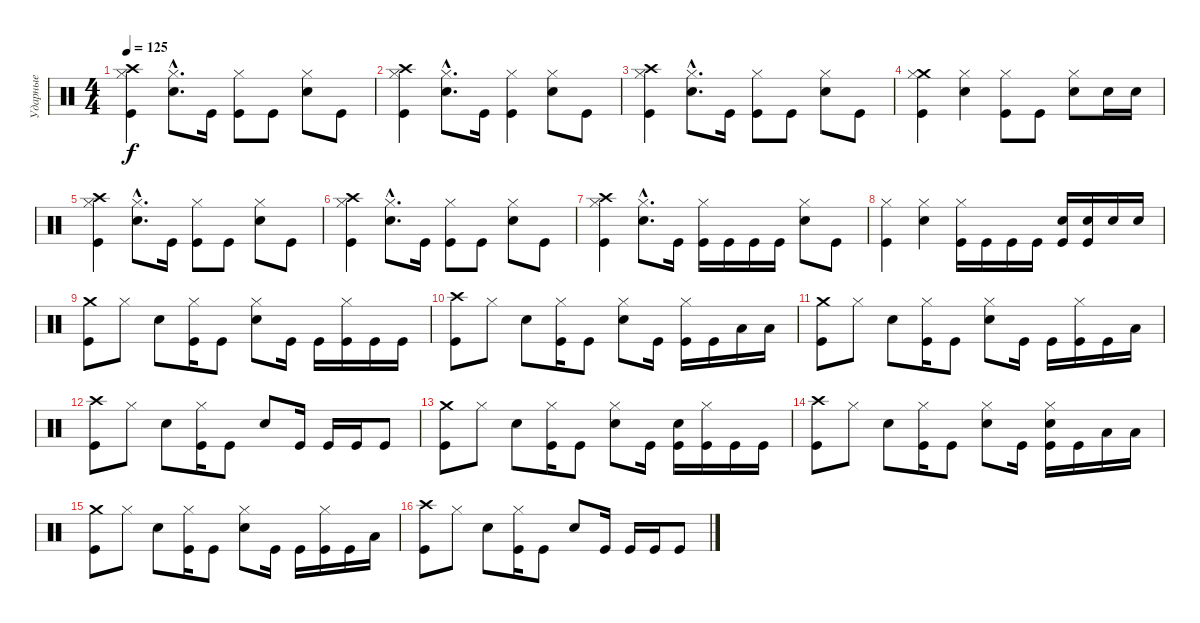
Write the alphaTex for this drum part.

\track ("Ударные" "Ударные") {instrument percussion}
\staff {score}
\articulation defaults
\ts (4 4)
\tempo 125
\clef neutral
\ks c
("Crash high (hit)" "Hi-Hat (closed)" "Kick (hit)").4{dy f} ("Hi-Hat (closed)"{hac} "Electric Snare (hit)"{hac}).8{d} "Kick (hit)".16 ("Hi-Hat (closed)" "Kick (hit)").8 "Kick (hit)".8 ("Hi-Hat (closed)" "Electric Snare (hit)").8 "Kick (hit)".8 |
("Crash high (hit)" "Hi-Hat (closed)" "Kick (hit)").4 ("Hi-Hat (closed)"{hac} "Electric Snare (hit)"{hac}).8{d} "Kick (hit)".16 ("Hi-Hat (closed)" "Kick (hit)").4 ("Hi-Hat (closed)" "Electric Snare (hit)").8 "Kick (hit)".8 |
("Crash high (hit)" "Hi-Hat (closed)" "Kick (hit)").4 ("Hi-Hat (closed)"{hac} "Electric Snare (hit)"{hac}).8{d} "Kick (hit)".16 ("Hi-Hat (closed)" "Kick (hit)").8 "Kick (hit)".8 ("Hi-Hat (closed)" "Electric Snare (hit)").8 "Kick (hit)".8 |
("Crash medium (hit)" "Hi-Hat (closed)" "Kick (hit)").4 ("Hi-Hat (closed)" "Electric Snare (hit)").4 ("Hi-Hat (closed)" "Kick (hit)").8 "Kick (hit)".8 ("Hi-Hat (closed)" "Electric Snare (hit)").8 "Electric Snare (hit)".16 "Electric Snare (hit)".16 |
("Crash high (hit)" "Hi-Hat (closed)" "Kick (hit)").4 ("Hi-Hat (closed)"{hac} "Electric Snare (hit)"{hac}).8{d} "Kick (hit)".16 ("Hi-Hat (closed)" "Kick (hit)").8 "Kick (hit)".8 ("Hi-Hat (closed)" "Electric Snare (hit)").8 "Kick (hit)".8 |
("Crash high (hit)" "Hi-Hat (closed)" "Kick (hit)").4 ("Hi-Hat (closed)"{hac} "Electric Snare (hit)"{hac}).8{d} "Kick (hit)".16 ("Hi-Hat (closed)" "Kick (hit)").8 "Kick (hit)".8 ("Hi-Hat (closed)" "Electric Snare (hit)").8 "Kick (hit)".8 |
("Crash high (hit)" "Hi-Hat (closed)" "Kick (hit)").4 ("Hi-Hat (closed)"{hac} "Electric Snare (hit)"{hac}).8{d} "Kick (hit)".16 ("Hi-Hat (closed)" "Kick (hit)").16 "Kick (hit)".16 "Kick (hit)".16 "Kick (hit)".16 ("Hi-Hat (closed)" "Electric Snare (hit)").8 "Kick (hit)".8 |
("Hi-Hat (closed)" "Kick (hit)").4 ("Hi-Hat (closed)" "Electric Snare (hit)").4 ("Hi-Hat (closed)" "Kick (hit)").16 "Kick (hit)".16 "Kick (hit)".16 "Kick (hit)".16 ("Electric Snare (hit)" "Kick (hit)").16 ("Electric Snare (hit)" "Kick (hit)").16 "Electric Snare (hit)".16 "Electric Snare (hit)".16 |
("Crash medium (hit)" "Kick (hit)").8 "Hi-Hat (closed)".8 "Electric Snare (hit)".8 ("Hi-Hat (closed)" "Kick (hit)").16 "Kick (hit)".8 ("Hi-Hat (closed)" "Electric Snare (hit)").8 "Kick (hit)".16 "Kick (hit)".16 ("Hi-Hat (closed)" "Kick (hit)").16 "Kick (hit)".16 "Kick (hit)".16 |
("Crash high (hit)" "Kick (hit)").8 "Hi-Hat (closed)".8 "Electric Snare (hit)".8 ("Hi-Hat (closed)" "Kick (hit)").16 "Kick (hit)".8 ("Hi-Hat (closed)" "Electric Snare (hit)").8 "Kick (hit)".16 ("Hi-Hat (closed)" "Kick (hit)").16 "Kick (hit)".16 "Low Tom (hit)".16 "Low Tom (hit)".16 |
("Crash medium (hit)" "Kick (hit)").8 "Hi-Hat (closed)".8 "Electric Snare (hit)".8 ("Hi-Hat (closed)" "Kick (hit)").16 "Kick (hit)".8 ("Hi-Hat (closed)" "Electric Snare (hit)").8 "Kick (hit)".16 "Kick (hit)".16 ("Hi-Hat (closed)" "Kick (hit)").16 "Kick (hit)".16 "Low Tom (hit)".16 |
("Crash high (hit)" "Kick (hit)").8 "Hi-Hat (closed)".8 "Electric Snare (hit)".8 ("Hi-Hat (closed)" "Kick (hit)").16 "Kick (hit)".8 "Electric Snare (hit)".8 "Kick (hit)".16 "Kick (hit)".16 "Kick (hit)".16 "Kick (hit)".8 |
("Crash medium (hit)" "Kick (hit)").8 "Hi-Hat (closed)".8 "Electric Snare (hit)".8 ("Hi-Hat (closed)" "Kick (hit)").16 "Kick (hit)".8 ("Hi-Hat (closed)" "Electric Snare (hit)").8 "Kick (hit)".16 ("Electric Snare (hit)" "Kick (hit)").16 ("Hi-Hat (closed)" "Kick (hit)").16 "Kick (hit)".16 "Kick (hit)".16 |
("Crash high (hit)" "Kick (hit)").8 "Hi-Hat (closed)".8 "Electric Snare (hit)".8 ("Hi-Hat (closed)" "Kick (hit)").16 "Kick (hit)".8 ("Hi-Hat (closed)" "Electric Snare (hit)").8 "Kick (hit)".16 ("Hi-Hat (closed)" "Electric Snare (hit)" "Kick (hit)").16 "Kick (hit)".16 "Low Tom (hit)".16 "Low Tom (hit)".16 |
("Crash medium (hit)" "Kick (hit)").8 "Hi-Hat (closed)".8 "Electric Snare (hit)".8 ("Hi-Hat (closed)" "Kick (hit)").16 "Kick (hit)".8 ("Hi-Hat (closed)" "Electric Snare (hit)").8 "Kick (hit)".16 "Kick (hit)".16 ("Hi-Hat (closed)" "Kick (hit)").16 "Kick (hit)".16 "Low Tom (hit)".16 |
("Crash high (hit)" "Kick (hit)").8 "Hi-Hat (closed)".8 "Electric Snare (hit)".8 ("Hi-Hat (closed)" "Kick (hit)").16 "Kick (hit)".8 "Electric Snare (hit)".8 "Kick (hit)".16 "Kick (hit)".16 "Kick (hit)".16 "Kick (hit)".8
